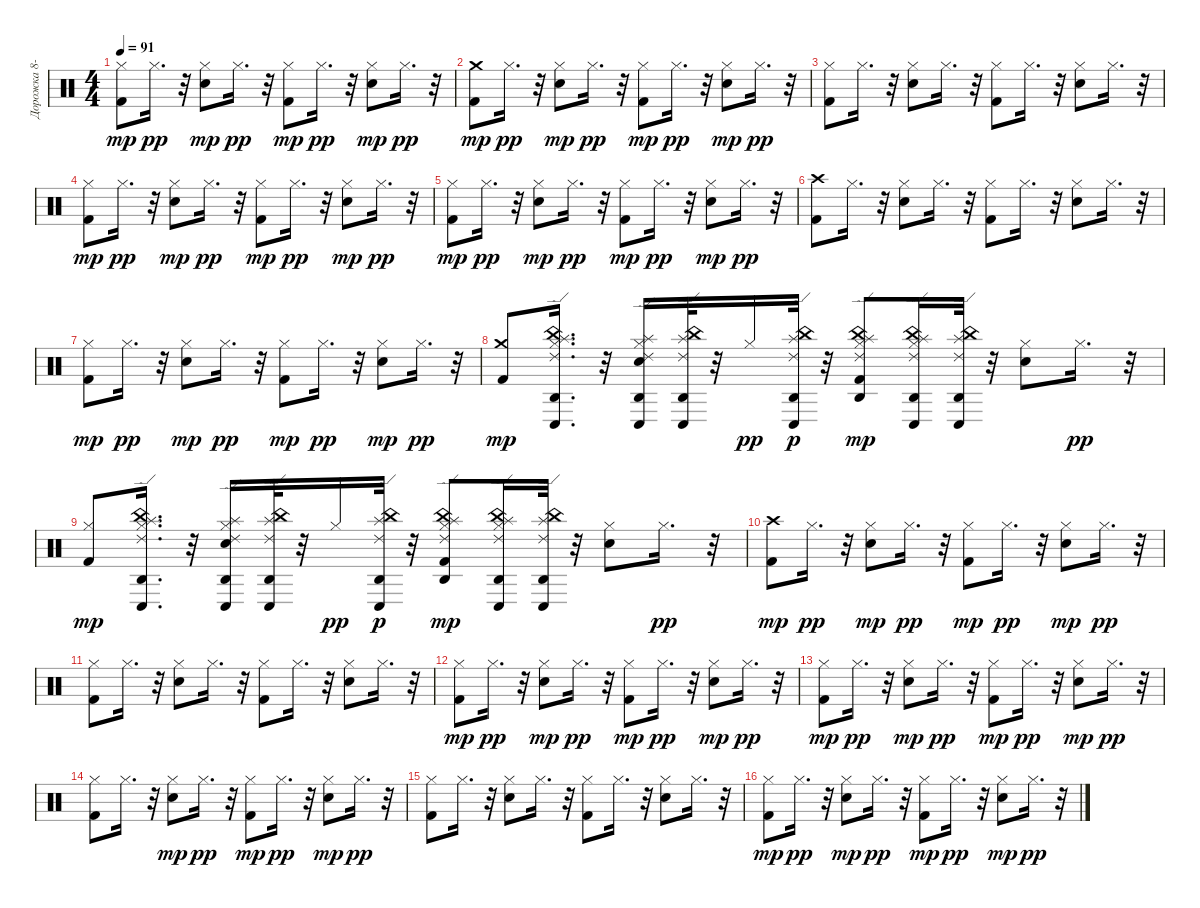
\track ("Дорожка 8-9-10-11" "Дорожка 8-") {instrument percussion}
\staff {score}
\articulation defaults
\ts (4 4)
\tempo 91
\clef neutral
\ks c
("Hi-Hat (closed)" "Kick (hit) 2").8{dy mp} "Hi-Hat (closed)".16{d dy pp} r.32 ("Hi-Hat (closed)" "Electric Snare (hit)").8{dy mp} "Hi-Hat (closed)".16{d dy pp} r.32 ("Hi-Hat (closed)" "Kick (hit) 2").8{dy mp} "Hi-Hat (closed)".16{d dy pp} r.32 ("Hi-Hat (closed)" "Electric Snare (hit)").8{dy mp} "Hi-Hat (closed)".16{d dy pp} r.32 |
("Kick (hit) 2" "Crash medium (hit)").8{dy mp} "Hi-Hat (closed)".16{d dy pp} r.32 ("Hi-Hat (closed)" "Electric Snare (hit)").8{dy mp} "Hi-Hat (closed)".16{d dy pp} r.32 ("Hi-Hat (closed)" "Kick (hit) 2").8{dy mp} "Hi-Hat (closed)".16{d dy pp} r.32 ("Hi-Hat (closed)" "Electric Snare (hit)").8{dy mp} "Hi-Hat (closed)".16{d dy pp} r.32 |
("Kick (hit) 2" "Hi-Hat (closed)").8 "Hi-Hat (closed)".16{d} r.32 ("Electric Snare (hit)" "Hi-Hat (closed)").8 "Hi-Hat (closed)".16{d} r.32 ("Kick (hit) 2" "Hi-Hat (closed)").8 "Hi-Hat (closed)".16{d} r.32 ("Electric Snare (hit)" "Hi-Hat (closed)").8 "Hi-Hat (closed)".16{d} r.32 |
("Hi-Hat (closed)" "Kick (hit) 2").8{dy mp} "Hi-Hat (closed)".16{d dy pp} r.32 ("Hi-Hat (closed)" "Electric Snare (hit)").8{dy mp} "Hi-Hat (closed)".16{d dy pp} r.32 ("Hi-Hat (closed)" "Kick (hit) 2").8{dy mp} "Hi-Hat (closed)".16{d dy pp} r.32 ("Hi-Hat (closed)" "Electric Snare (hit)").8{dy mp} "Hi-Hat (closed)".16{d dy pp} r.32 |
("Hi-Hat (closed)" "Kick (hit) 2").8{dy mp} "Hi-Hat (closed)".16{d dy pp} r.32 ("Hi-Hat (closed)" "Electric Snare (hit)").8{dy mp} "Hi-Hat (closed)".16{d dy pp} r.32 ("Hi-Hat (closed)" "Kick (hit) 2").8{dy mp} "Hi-Hat (closed)".16{d dy pp} r.32 ("Hi-Hat (closed)" "Electric Snare (hit)").8{dy mp} "Hi-Hat (closed)".16{d dy pp} r.32 |
("Kick (hit) 2" "Crash high (hit)").8 "Hi-Hat (closed)".16{d} r.32 ("Electric Snare (hit)" "Hi-Hat (closed)").8 "Hi-Hat (closed)".16{d} r.32 ("Kick (hit) 2" "Hi-Hat (closed)").8 "Hi-Hat (closed)".16{d} r.32 ("Electric Snare (hit)" "Hi-Hat (closed)").8 "Hi-Hat (closed)".16{d} r.32 |
("Hi-Hat (closed)" "Kick (hit) 2").8{dy mp} "Hi-Hat (closed)".16{d dy pp} r.32 ("Hi-Hat (closed)" "Electric Snare (hit)").8{dy mp} "Hi-Hat (closed)".16{d dy pp} r.32 ("Hi-Hat (closed)" "Kick (hit) 2").8{dy mp} "Hi-Hat (closed)".16{d dy pp} r.32 ("Hi-Hat (closed)" "Electric Snare (hit)").8{dy mp} "Hi-Hat (closed)".16{d dy pp} r.32 |
("Kick (hit) 2" "Crash medium (hit)").8{dy mp} ("Hi-Hat (closed)" "China (hit)" "Ride (edge) 2" "Splash (hit)" "Agogo high (hit)" "Conga low (hit)").16{d} r.32 ("Hi-Hat (closed)" "Electric Snare (hit)" "Ride (edge) 2" "Agogo high (hit)" "Conga low (hit)" "Splash (hit)").16 ("Ride (edge) 2" "China (hit)" "Splash (hit)" "Conga low (hit)" "Agogo high (hit)").32 r.32 "Hi-Hat (closed)".16{dy pp} ("China (hit)" "Ride (edge) 2" "Splash (hit)" "Conga low (hit)" "Agogo high (hit)").32{dy p} r.32 ("Hi-Hat (closed)" "Kick (hit) 2" "Splash (hit)" "Ride (edge) 2" "China (hit)" "Agogo high (hit)").8{dy mp} ("Hi-Hat (closed)" "Ride (edge) 2" "Conga low (hit)" "Agogo high (hit)" "Splash (hit)" "China (hit)").16 ("Splash (hit)" "Ride (edge) 2" "China (hit)" "Conga low (hit)" "Agogo high (hit)").32 r.32 ("Hi-Hat (closed)" "Electric Snare (hit)").8 "Hi-Hat (closed)".16{d dy pp} r.32 |
("Hi-Hat (closed)" "Kick (hit) 2").8{dy mp} ("Hi-Hat (closed)" "China (hit)" "Ride (edge) 2" "Splash (hit)" "Agogo high (hit)" "Conga low (hit)").16{d} r.32 ("Hi-Hat (closed)" "Electric Snare (hit)" "Ride (edge) 2" "Agogo high (hit)" "Conga low (hit)" "Splash (hit)").16 ("Ride (edge) 2" "China (hit)" "Splash (hit)" "Conga low (hit)" "Agogo high (hit)").32 r.32 "Hi-Hat (closed)".16{dy pp} ("China (hit)" "Ride (edge) 2" "Splash (hit)" "Conga low (hit)" "Agogo high (hit)").32{dy p} r.32 ("Hi-Hat (closed)" "Kick (hit) 2" "Splash (hit)" "Ride (edge) 2" "China (hit)" "Agogo high (hit)").8{dy mp} ("Hi-Hat (closed)" "Ride (edge) 2" "Conga low (hit)" "Agogo high (hit)" "Splash (hit)" "China (hit)").16 ("Splash (hit)" "Ride (edge) 2" "China (hit)" "Conga low (hit)" "Agogo high (hit)").32 r.32 ("Hi-Hat (closed)" "Electric Snare (hit)").8 "Hi-Hat (closed)".16{d dy pp} r.32 |
("Kick (hit) 2" "Crash high (hit)").8{dy mp} "Hi-Hat (closed)".16{d dy pp} r.32 ("Hi-Hat (closed)" "Electric Snare (hit)").8{dy mp} "Hi-Hat (closed)".16{d dy pp} r.32 ("Hi-Hat (closed)" "Kick (hit) 2").8{dy mp} "Hi-Hat (closed)".16{d dy pp} r.32 ("Hi-Hat (closed)" "Electric Snare (hit)").8{dy mp} "Hi-Hat (closed)".16{d dy pp} r.32 |
("Kick (hit) 2" "Hi-Hat (closed)").8 "Hi-Hat (closed)".16{d} r.32 ("Electric Snare (hit)" "Hi-Hat (closed)").8 "Hi-Hat (closed)".16{d} r.32 ("Kick (hit) 2" "Hi-Hat (closed)").8 "Hi-Hat (closed)".16{d} r.32 ("Electric Snare (hit)" "Hi-Hat (closed)").8 "Hi-Hat (closed)".16{d} r.32 |
("Hi-Hat (closed)" "Kick (hit) 2").8{dy mp} "Hi-Hat (closed)".16{d dy pp} r.32 ("Hi-Hat (closed)" "Electric Snare (hit)").8{dy mp} "Hi-Hat (closed)".16{d dy pp} r.32 ("Hi-Hat (closed)" "Kick (hit) 2").8{dy mp} "Hi-Hat (closed)".16{d dy pp} r.32 ("Hi-Hat (closed)" "Electric Snare (hit)").8{dy mp} "Hi-Hat (closed)".16{d dy pp} r.32 |
("Hi-Hat (closed)" "Kick (hit) 2").8{dy mp} "Hi-Hat (closed)".16{d dy pp} r.32 ("Hi-Hat (closed)" "Electric Snare (hit)").8{dy mp} "Hi-Hat (closed)".16{d dy pp} r.32 ("Hi-Hat (closed)" "Kick (hit) 2").8{dy mp} "Hi-Hat (closed)".16{d dy pp} r.32 ("Hi-Hat (closed)" "Electric Snare (hit)").8{dy mp} "Hi-Hat (closed)".16{d dy pp} r.32 |
("Kick (hit) 2" "Hi-Hat (closed)").8 "Hi-Hat (closed)".16{d} r.32 ("Hi-Hat (closed)" "Electric Snare (hit)").8{dy mp} "Hi-Hat (closed)".16{d dy pp} r.32 ("Hi-Hat (closed)" "Kick (hit) 2").8{dy mp} "Hi-Hat (closed)".16{d dy pp} r.32 ("Hi-Hat (closed)" "Electric Snare (hit)").8{dy mp} "Hi-Hat (closed)".16{d dy pp} r.32 |
("Kick (hit) 2" "Hi-Hat (closed)").8 "Hi-Hat (closed)".16{d} r.32 ("Electric Snare (hit)" "Hi-Hat (closed)").8 "Hi-Hat (closed)".16{d} r.32 ("Kick (hit) 2" "Hi-Hat (closed)").8 "Hi-Hat (closed)".16{d} r.32 ("Electric Snare (hit)" "Hi-Hat (closed)").8 "Hi-Hat (closed)".16{d} r.32 |
("Hi-Hat (closed)" "Kick (hit) 2").8{dy mp} "Hi-Hat (closed)".16{d dy pp} r.32 ("Hi-Hat (closed)" "Electric Snare (hit)").8{dy mp} "Hi-Hat (closed)".16{d dy pp} r.32 ("Hi-Hat (closed)" "Kick (hit) 2").8{dy mp} "Hi-Hat (closed)".16{d dy pp} r.32 ("Hi-Hat (closed)" "Electric Snare (hit)").8{dy mp} "Hi-Hat (closed)".16{d dy pp} r.32
